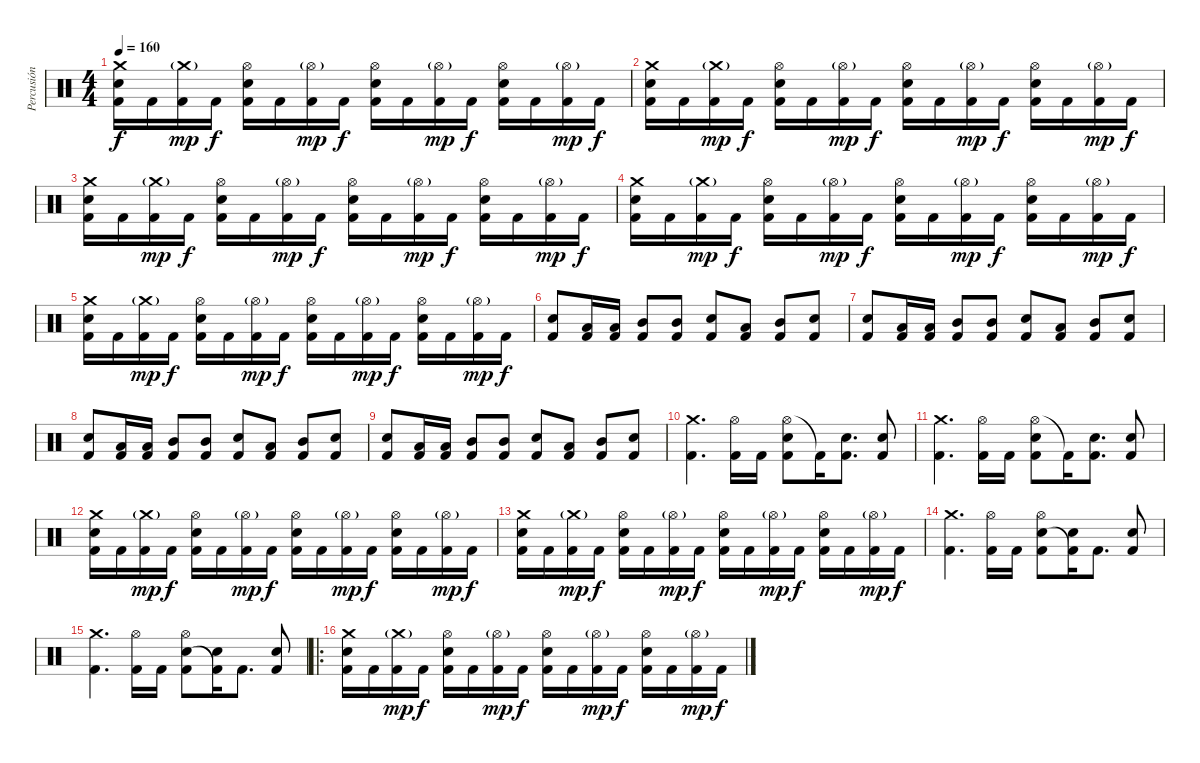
\track ("Percusión" "Percusión") {instrument percussion}
\staff {score}
\articulation defaults
\ts (4 4)
\tempo 160
\clef neutral
\ks c
("Crash medium (hit)" "Electric Snare (hit)" "Kick (hit) 2").16{dy f} "Kick (hit) 2".16 ("Crash medium (hit)"{g} "Kick (hit) 2").16{dy mp} "Kick (hit) 2".16{dy f} ("Hi-Hat (open)" "Electric Snare (hit)" "Kick (hit) 2").16 "Kick (hit) 2".16 ("Hi-Hat (open)"{g} "Kick (hit) 2").16{dy mp} "Kick (hit) 2".16{dy f} ("Hi-Hat (open)" "Electric Snare (hit)" "Kick (hit) 2").16 "Kick (hit) 2".16 ("Hi-Hat (open)"{g} "Kick (hit) 2").16{dy mp} "Kick (hit) 2".16{dy f} ("Hi-Hat (open)" "Electric Snare (hit)" "Kick (hit) 2").16 "Kick (hit) 2".16 ("Hi-Hat (open)"{g} "Kick (hit) 2").16{dy mp} "Kick (hit) 2".16{dy f} |
("Crash medium (hit)" "Electric Snare (hit)" "Kick (hit) 2").16 "Kick (hit) 2".16 ("Crash medium (hit)"{g} "Kick (hit) 2").16{dy mp} "Kick (hit) 2".16{dy f} ("Hi-Hat (open)" "Electric Snare (hit)" "Kick (hit) 2").16 "Kick (hit) 2".16 ("Hi-Hat (open)"{g} "Kick (hit) 2").16{dy mp} "Kick (hit) 2".16{dy f} ("Hi-Hat (open)" "Electric Snare (hit)" "Kick (hit) 2").16 "Kick (hit) 2".16 ("Hi-Hat (open)"{g} "Kick (hit) 2").16{dy mp} "Kick (hit) 2".16{dy f} ("Hi-Hat (open)" "Electric Snare (hit)" "Kick (hit) 2").16 "Kick (hit) 2".16 ("Hi-Hat (open)"{g} "Kick (hit) 2").16{dy mp} "Kick (hit) 2".16{dy f} |
("Crash medium (hit)" "Electric Snare (hit)" "Kick (hit) 2").16 "Kick (hit) 2".16 ("Crash medium (hit)"{g} "Kick (hit) 2").16{dy mp} "Kick (hit) 2".16{dy f} ("Hi-Hat (open)" "Electric Snare (hit)" "Kick (hit) 2").16 "Kick (hit) 2".16 ("Hi-Hat (open)"{g} "Kick (hit) 2").16{dy mp} "Kick (hit) 2".16{dy f} ("Hi-Hat (open)" "Electric Snare (hit)" "Kick (hit) 2").16 "Kick (hit) 2".16 ("Hi-Hat (open)"{g} "Kick (hit) 2").16{dy mp} "Kick (hit) 2".16{dy f} ("Hi-Hat (open)" "Electric Snare (hit)" "Kick (hit) 2").16 "Kick (hit) 2".16 ("Hi-Hat (open)"{g} "Kick (hit) 2").16{dy mp} "Kick (hit) 2".16{dy f} |
("Crash medium (hit)" "Electric Snare (hit)" "Kick (hit) 2").16 "Kick (hit) 2".16 ("Crash medium (hit)"{g} "Kick (hit) 2").16{dy mp} "Kick (hit) 2".16{dy f} ("Hi-Hat (open)" "Electric Snare (hit)" "Kick (hit) 2").16 "Kick (hit) 2".16 ("Hi-Hat (open)"{g} "Kick (hit) 2").16{dy mp} "Kick (hit) 2".16{dy f} ("Hi-Hat (open)" "Electric Snare (hit)" "Kick (hit) 2").16 "Kick (hit) 2".16 ("Hi-Hat (open)"{g} "Kick (hit) 2").16{dy mp} "Kick (hit) 2".16{dy f} ("Hi-Hat (open)" "Electric Snare (hit)" "Kick (hit) 2").16 "Kick (hit) 2".16 ("Hi-Hat (open)"{g} "Kick (hit) 2").16{dy mp} "Kick (hit) 2".16{dy f} |
("Crash medium (hit)" "Electric Snare (hit)" "Kick (hit) 2").16 "Kick (hit) 2".16 ("Crash medium (hit)"{g} "Kick (hit) 2").16{dy mp} "Kick (hit) 2".16{dy f} ("Hi-Hat (open)" "Electric Snare (hit)" "Kick (hit) 2").16 "Kick (hit) 2".16 ("Hi-Hat (open)"{g} "Kick (hit) 2").16{dy mp} "Kick (hit) 2".16{dy f} ("Hi-Hat (open)" "Electric Snare (hit)" "Kick (hit) 2").16 "Kick (hit) 2".16 ("Hi-Hat (open)"{g} "Kick (hit) 2").16{dy mp} "Kick (hit) 2".16{dy f} ("Hi-Hat (open)" "Electric Snare (hit)" "Kick (hit) 2").16 "Kick (hit) 2".16 ("Hi-Hat (open)"{g} "Kick (hit) 2").16{dy mp} "Kick (hit) 2".16{dy f} |
("Snare (hit) 2" "Kick (hit) 2").8 ("Low Tom (hit)" "Kick (hit) 2").16 ("Low Tom (hit)" "Kick (hit) 2").16 ("Mid Tom (hit)" "Kick (hit) 2").8 ("Mid Tom (hit)" "Kick (hit) 2").8 ("Snare (hit) 2" "Kick (hit) 2").8 ("Low Tom (hit)" "Kick (hit) 2").8 ("Mid Tom (hit)" "Kick (hit) 2").8 ("Snare (hit) 2" "Kick (hit) 2").8 |
("Snare (hit) 2" "Kick (hit) 2").8 ("Low Tom (hit)" "Kick (hit) 2").16 ("Low Tom (hit)" "Kick (hit) 2").16 ("Mid Tom (hit)" "Kick (hit) 2").8 ("Mid Tom (hit)" "Kick (hit) 2").8 ("Snare (hit) 2" "Kick (hit) 2").8 ("Low Tom (hit)" "Kick (hit) 2").8 ("Mid Tom (hit)" "Kick (hit) 2").8 ("Snare (hit) 2" "Kick (hit) 2").8 |
("Snare (hit) 2" "Kick (hit) 2").8 ("Low Tom (hit)" "Kick (hit) 2").16 ("Low Tom (hit)" "Kick (hit) 2").16 ("Mid Tom (hit)" "Kick (hit) 2").8 ("Mid Tom (hit)" "Kick (hit) 2").8 ("Snare (hit) 2" "Kick (hit) 2").8 ("Low Tom (hit)" "Kick (hit) 2").8 ("Mid Tom (hit)" "Kick (hit) 2").8 ("Snare (hit) 2" "Kick (hit) 2").8 |
("Snare (hit) 2" "Kick (hit) 2").8 ("Low Tom (hit)" "Kick (hit) 2").16 ("Low Tom (hit)" "Kick (hit) 2").16 ("Mid Tom (hit)" "Kick (hit) 2").8 ("Mid Tom (hit)" "Kick (hit) 2").8 ("Snare (hit) 2" "Kick (hit) 2").8 ("Low Tom (hit)" "Kick (hit) 2").8 ("Mid Tom (hit)" "Kick (hit) 2").8 ("Snare (hit) 2" "Kick (hit) 2").8 |
("Crash medium (hit)" "Kick (hit) 2").4{d} ("Hi-Hat (open)" "Kick (hit) 2").16 "Kick (hit) 2".16 ("Hi-Hat (open)" "Electric Snare (hit)" "Kick (hit) 2").8 "Kick (hit) 2"{t}.16 ("Snare (hit) 2" "Kick (hit) 2").8{d} ("Snare (hit) 2" "Kick (hit) 2").8 |
("Crash medium (hit)" "Kick (hit) 2").4{d} ("Hi-Hat (open)" "Kick (hit) 2").16 "Kick (hit) 2".16 ("Hi-Hat (open)" "Electric Snare (hit)" "Kick (hit) 2").8 "Kick (hit) 2"{t}.16 ("Snare (hit) 2" "Kick (hit) 2").8{d} ("Snare (hit) 2" "Kick (hit) 2").8 |
("Crash medium (hit)" "Electric Snare (hit)" "Kick (hit) 2").16 "Kick (hit) 2".16 ("Crash medium (hit)"{g} "Kick (hit) 2").16{dy mp} "Kick (hit) 2".16{dy f} ("Hi-Hat (open)" "Electric Snare (hit)" "Kick (hit) 2").16 "Kick (hit) 2".16 ("Hi-Hat (open)"{g} "Kick (hit) 2").16{dy mp} "Kick (hit) 2".16{dy f} ("Hi-Hat (open)" "Electric Snare (hit)" "Kick (hit) 2").16 "Kick (hit) 2".16 ("Hi-Hat (open)"{g} "Kick (hit) 2").16{dy mp} "Kick (hit) 2".16{dy f} ("Hi-Hat (open)" "Electric Snare (hit)" "Kick (hit) 2").16 "Kick (hit) 2".16 ("Hi-Hat (open)"{g} "Kick (hit) 2").16{dy mp} "Kick (hit) 2".16{dy f} |
("Crash medium (hit)" "Electric Snare (hit)" "Kick (hit) 2").16 "Kick (hit) 2".16 ("Crash medium (hit)"{g} "Kick (hit) 2").16{dy mp} "Kick (hit) 2".16{dy f} ("Hi-Hat (open)" "Electric Snare (hit)" "Kick (hit) 2").16 "Kick (hit) 2".16 ("Hi-Hat (open)"{g} "Kick (hit) 2").16{dy mp} "Kick (hit) 2".16{dy f} ("Hi-Hat (open)" "Electric Snare (hit)" "Kick (hit) 2").16 "Kick (hit) 2".16 ("Hi-Hat (open)"{g} "Kick (hit) 2").16{dy mp} "Kick (hit) 2".16{dy f} ("Hi-Hat (open)" "Electric Snare (hit)" "Kick (hit) 2").16 "Kick (hit) 2".16 ("Hi-Hat (open)"{g} "Kick (hit) 2").16{dy mp} "Kick (hit) 2".16{dy f} |
("Crash medium (hit)" "Kick (hit) 2").4{d} ("Hi-Hat (open)" "Kick (hit) 2").16 "Kick (hit) 2".16 ("Hi-Hat (open)" "Electric Snare (hit)" "Kick (hit) 2").8 ("Electric Snare (hit)" "Kick (hit) 2"{t}).16 "Kick (hit) 2".8{d} ("Snare (hit) 2" "Kick (hit) 2").8 |
("Crash medium (hit)" "Kick (hit) 2").4{d} ("Hi-Hat (open)" "Kick (hit) 2").16 "Kick (hit) 2".16 ("Hi-Hat (open)" "Electric Snare (hit)" "Kick (hit) 2").8 ("Electric Snare (hit)" "Kick (hit) 2"{t}).16 "Kick (hit) 2".8{d} ("Snare (hit) 2" "Kick (hit) 2").8 |
\ro
("Crash medium (hit)" "Electric Snare (hit)" "Kick (hit) 2").16 "Kick (hit) 2".16 ("Crash medium (hit)"{g} "Kick (hit) 2").16{dy mp} "Kick (hit) 2".16{dy f} ("Hi-Hat (open)" "Electric Snare (hit)" "Kick (hit) 2").16 "Kick (hit) 2".16 ("Hi-Hat (open)"{g} "Kick (hit) 2").16{dy mp} "Kick (hit) 2".16{dy f} ("Hi-Hat (open)" "Electric Snare (hit)" "Kick (hit) 2").16 "Kick (hit) 2".16 ("Hi-Hat (open)"{g} "Kick (hit) 2").16{dy mp} "Kick (hit) 2".16{dy f} ("Hi-Hat (open)" "Electric Snare (hit)" "Kick (hit) 2").16 "Kick (hit) 2".16 ("Hi-Hat (open)"{g} "Kick (hit) 2").16{dy mp} "Kick (hit) 2".16{dy f}
